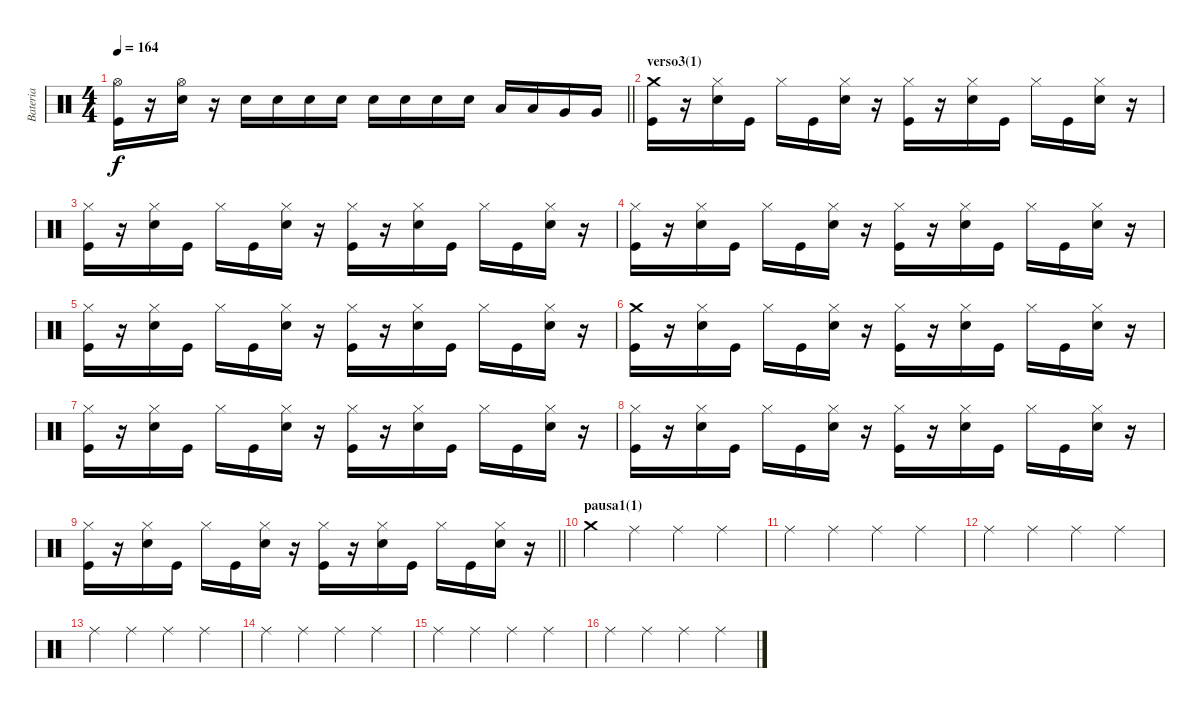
\track ("Bateria" "Bateria") {instrument percussion}
\staff {score}
\articulation defaults
\ts (4 4)
\tempo 164
\clef neutral
\barLineRight lightlight
\ks c
("Hi-Hat (open)" "Kick (hit)").16{dy f} r.16 ("Hi-Hat (open)" "Snare (hit) 2").16 r.16 "Snare (hit) 2".16 "Snare (hit) 2".16 "Snare (hit) 2".16 "Snare (hit) 2".16 "Snare (hit) 2".16 "Snare (hit) 2".16 "Snare (hit) 2".16 "Snare (hit) 2".16 "Low Tom (hit)".16 "Low Tom (hit)".16 "Very Low Tom (hit)".16 "Very Low Tom (hit)".16 |
\section ("" "verso3(1)")
("Crash medium (hit)" "Kick (hit)").16 r.16 ("Hi-Hat (closed)" "Snare (hit) 2").16 "Kick (hit)".16 "Hi-Hat (closed)".16 "Kick (hit)".16 ("Hi-Hat (closed)" "Snare (hit) 2").16 r.16 ("Hi-Hat (closed)" "Kick (hit)").16 r.16 ("Hi-Hat (closed)" "Snare (hit) 2").16 "Kick (hit)".16 "Hi-Hat (closed)".16 "Kick (hit)".16 ("Hi-Hat (closed)" "Snare (hit) 2").16 r.16 |
("Hi-Hat (closed)" "Kick (hit)").16 r.16 ("Hi-Hat (closed)" "Snare (hit) 2").16 "Kick (hit)".16 "Hi-Hat (closed)".16 "Kick (hit)".16 ("Hi-Hat (closed)" "Snare (hit) 2").16 r.16 ("Hi-Hat (closed)" "Kick (hit)").16 r.16 ("Hi-Hat (closed)" "Snare (hit) 2").16 "Kick (hit)".16 "Hi-Hat (closed)".16 "Kick (hit)".16 ("Hi-Hat (closed)" "Snare (hit) 2").16 r.16 |
("Hi-Hat (closed)" "Kick (hit)").16 r.16 ("Hi-Hat (closed)" "Snare (hit) 2").16 "Kick (hit)".16 "Hi-Hat (closed)".16 "Kick (hit)".16 ("Hi-Hat (closed)" "Snare (hit) 2").16 r.16 ("Hi-Hat (closed)" "Kick (hit)").16 r.16 ("Hi-Hat (closed)" "Snare (hit) 2").16 "Kick (hit)".16 "Hi-Hat (closed)".16 "Kick (hit)".16 ("Hi-Hat (closed)" "Snare (hit) 2").16 r.16 |
("Hi-Hat (closed)" "Kick (hit)").16 r.16 ("Hi-Hat (closed)" "Snare (hit) 2").16 "Kick (hit)".16 "Hi-Hat (closed)".16 "Kick (hit)".16 ("Hi-Hat (closed)" "Snare (hit) 2").16 r.16 ("Hi-Hat (closed)" "Kick (hit)").16 r.16 ("Hi-Hat (closed)" "Snare (hit) 2").16 "Kick (hit)".16 "Hi-Hat (closed)".16 "Kick (hit)".16 ("Hi-Hat (closed)" "Snare (hit) 2").16 r.16 |
("Crash medium (hit)" "Kick (hit)").16 r.16 ("Hi-Hat (closed)" "Snare (hit) 2").16 "Kick (hit)".16 "Hi-Hat (closed)".16 "Kick (hit)".16 ("Hi-Hat (closed)" "Snare (hit) 2").16 r.16 ("Hi-Hat (closed)" "Kick (hit)").16 r.16 ("Hi-Hat (closed)" "Snare (hit) 2").16 "Kick (hit)".16 "Hi-Hat (closed)".16 "Kick (hit)".16 ("Hi-Hat (closed)" "Snare (hit) 2").16 r.16 |
("Hi-Hat (closed)" "Kick (hit)").16 r.16 ("Hi-Hat (closed)" "Snare (hit) 2").16 "Kick (hit)".16 "Hi-Hat (closed)".16 "Kick (hit)".16 ("Hi-Hat (closed)" "Snare (hit) 2").16 r.16 ("Hi-Hat (closed)" "Kick (hit)").16 r.16 ("Hi-Hat (closed)" "Snare (hit) 2").16 "Kick (hit)".16 "Hi-Hat (closed)".16 "Kick (hit)".16 ("Hi-Hat (closed)" "Snare (hit) 2").16 r.16 |
("Hi-Hat (closed)" "Kick (hit)").16 r.16 ("Hi-Hat (closed)" "Snare (hit) 2").16 "Kick (hit)".16 "Hi-Hat (closed)".16 "Kick (hit)".16 ("Hi-Hat (closed)" "Snare (hit) 2").16 r.16 ("Hi-Hat (closed)" "Kick (hit)").16 r.16 ("Hi-Hat (closed)" "Snare (hit) 2").16 "Kick (hit)".16 "Hi-Hat (closed)".16 "Kick (hit)".16 ("Hi-Hat (closed)" "Snare (hit) 2").16 r.16 |
\barLineRight lightlight
("Hi-Hat (closed)" "Kick (hit)").16 r.16 ("Hi-Hat (closed)" "Snare (hit) 2").16 "Kick (hit)".16 "Hi-Hat (closed)".16 "Kick (hit)".16 ("Hi-Hat (closed)" "Snare (hit) 2").16 r.16 ("Hi-Hat (closed)" "Kick (hit)").16 r.16 ("Hi-Hat (closed)" "Snare (hit) 2").16 "Kick (hit)".16 "Hi-Hat (closed)".16 "Kick (hit)".16 ("Hi-Hat (closed)" "Snare (hit) 2").16 r.16 |
\section ("" "pausa1(1)")
"Crash medium (hit)".4 "Ride (middle)".4 "Ride (middle)".4 "Ride (middle)".4 |
"Ride (middle)".4 "Ride (middle)".4 "Ride (middle)".4 "Ride (middle)".4 |
"Ride (middle)".4 "Ride (middle)".4 "Ride (middle)".4 "Ride (middle)".4 |
"Ride (middle)".4 "Ride (middle)".4 "Ride (middle)".4 "Ride (middle)".4 |
"Ride (middle)".4 "Ride (middle)".4 "Ride (middle)".4 "Ride (middle)".4 |
"Ride (middle)".4 "Ride (middle)".4 "Ride (middle)".4 "Ride (middle)".4 |
"Ride (middle)".4 "Ride (middle)".4 "Ride (middle)".4 "Ride (middle)".4
